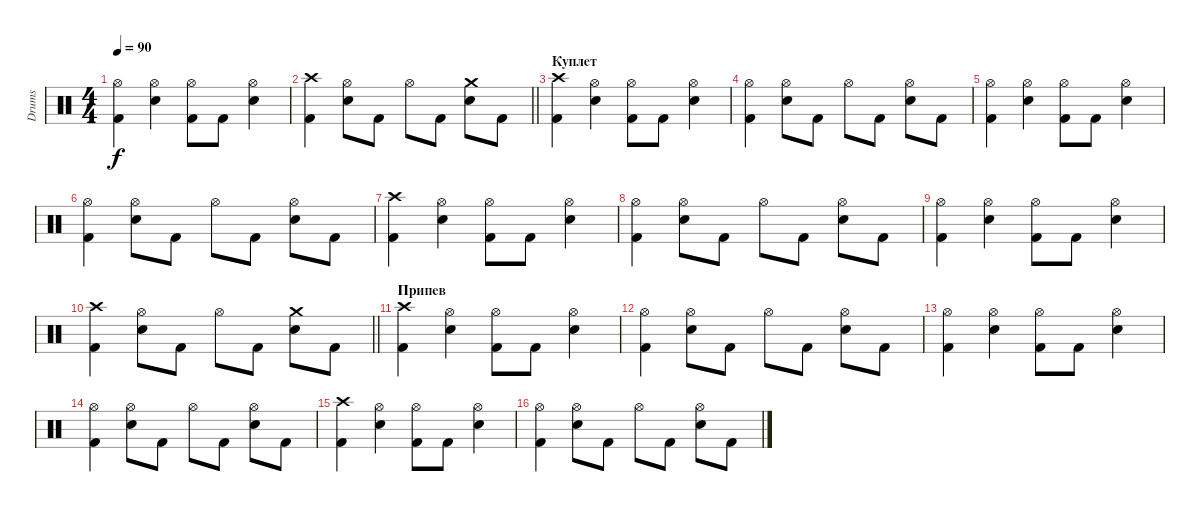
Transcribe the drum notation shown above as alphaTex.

\track ("Drums" "Drums") {instrument percussion}
\staff {score}
\articulation defaults
\ts (4 4)
\tempo 90
\clef neutral
\ks c
("Hi-Hat (open)" "Kick (hit) 2").4{dy f} ("Hi-Hat (open)" "Electric Snare (hit)").4 ("Hi-Hat (open)" "Kick (hit) 2").8 "Kick (hit) 2".8 ("Hi-Hat (open)" "Electric Snare (hit)").4 |
\barLineRight lightlight
("Crash high (hit)" "Kick (hit) 2").4 ("Hi-Hat (open)" "Electric Snare (hit)").8 "Kick (hit) 2".8 "Hi-Hat (open)".8 "Kick (hit) 2".8 ("Crash medium (hit)" "Electric Snare (hit)").8 "Kick (hit) 2".8 |
\section ("" "Куплет ")
("Crash high (hit)" "Kick (hit) 2").4 ("Hi-Hat (open)" "Electric Snare (hit)").4 ("Hi-Hat (open)" "Kick (hit) 2").8 "Kick (hit) 2".8 ("Hi-Hat (open)" "Electric Snare (hit)").4 |
("Hi-Hat (open)" "Kick (hit) 2").4 ("Hi-Hat (open)" "Electric Snare (hit)").8 "Kick (hit) 2".8 "Hi-Hat (open)".8 "Kick (hit) 2".8 ("Hi-Hat (open)" "Electric Snare (hit)").8 "Kick (hit) 2".8 |
("Hi-Hat (open)" "Kick (hit) 2").4 ("Hi-Hat (open)" "Electric Snare (hit)").4 ("Hi-Hat (open)" "Kick (hit) 2").8 "Kick (hit) 2".8 ("Hi-Hat (open)" "Electric Snare (hit)").4 |
("Hi-Hat (open)" "Kick (hit) 2").4 ("Hi-Hat (open)" "Electric Snare (hit)").8 "Kick (hit) 2".8 "Hi-Hat (open)".8 "Kick (hit) 2".8 ("Hi-Hat (open)" "Electric Snare (hit)").8 "Kick (hit) 2".8 |
("Crash high (hit)" "Kick (hit) 2").4 ("Hi-Hat (open)" "Electric Snare (hit)").4 ("Hi-Hat (open)" "Kick (hit) 2").8 "Kick (hit) 2".8 ("Hi-Hat (open)" "Electric Snare (hit)").4 |
("Hi-Hat (open)" "Kick (hit) 2").4 ("Hi-Hat (open)" "Electric Snare (hit)").8 "Kick (hit) 2".8 "Hi-Hat (open)".8 "Kick (hit) 2".8 ("Hi-Hat (open)" "Electric Snare (hit)").8 "Kick (hit) 2".8 |
("Hi-Hat (open)" "Kick (hit) 2").4 ("Hi-Hat (open)" "Electric Snare (hit)").4 ("Hi-Hat (open)" "Kick (hit) 2").8 "Kick (hit) 2".8 ("Hi-Hat (open)" "Electric Snare (hit)").4 |
\barLineRight lightlight
("Crash high (hit)" "Kick (hit) 2").4 ("Hi-Hat (open)" "Electric Snare (hit)").8 "Kick (hit) 2".8 "Hi-Hat (open)".8 "Kick (hit) 2".8 ("Crash medium (hit)" "Electric Snare (hit)").8 "Kick (hit) 2".8 |
\section ("" "Припев")
("Crash high (hit)" "Kick (hit) 2").4 ("Hi-Hat (open)" "Electric Snare (hit)").4 ("Hi-Hat (open)" "Kick (hit) 2").8 "Kick (hit) 2".8 ("Hi-Hat (open)" "Electric Snare (hit)").4 |
("Hi-Hat (open)" "Kick (hit) 2").4 ("Hi-Hat (open)" "Electric Snare (hit)").8 "Kick (hit) 2".8 "Hi-Hat (open)".8 "Kick (hit) 2".8 ("Hi-Hat (open)" "Electric Snare (hit)").8 "Kick (hit) 2".8 |
("Hi-Hat (open)" "Kick (hit) 2").4 ("Hi-Hat (open)" "Electric Snare (hit)").4 ("Hi-Hat (open)" "Kick (hit) 2").8 "Kick (hit) 2".8 ("Hi-Hat (open)" "Electric Snare (hit)").4 |
("Hi-Hat (open)" "Kick (hit) 2").4 ("Hi-Hat (open)" "Electric Snare (hit)").8 "Kick (hit) 2".8 "Hi-Hat (open)".8 "Kick (hit) 2".8 ("Hi-Hat (open)" "Electric Snare (hit)").8 "Kick (hit) 2".8 |
("Crash high (hit)" "Kick (hit) 2").4 ("Hi-Hat (open)" "Electric Snare (hit)").4 ("Hi-Hat (open)" "Kick (hit) 2").8 "Kick (hit) 2".8 ("Hi-Hat (open)" "Electric Snare (hit)").4 |
("Hi-Hat (open)" "Kick (hit) 2").4 ("Hi-Hat (open)" "Electric Snare (hit)").8 "Kick (hit) 2".8 "Hi-Hat (open)".8 "Kick (hit) 2".8 ("Hi-Hat (open)" "Electric Snare (hit)").8 "Kick (hit) 2".8
